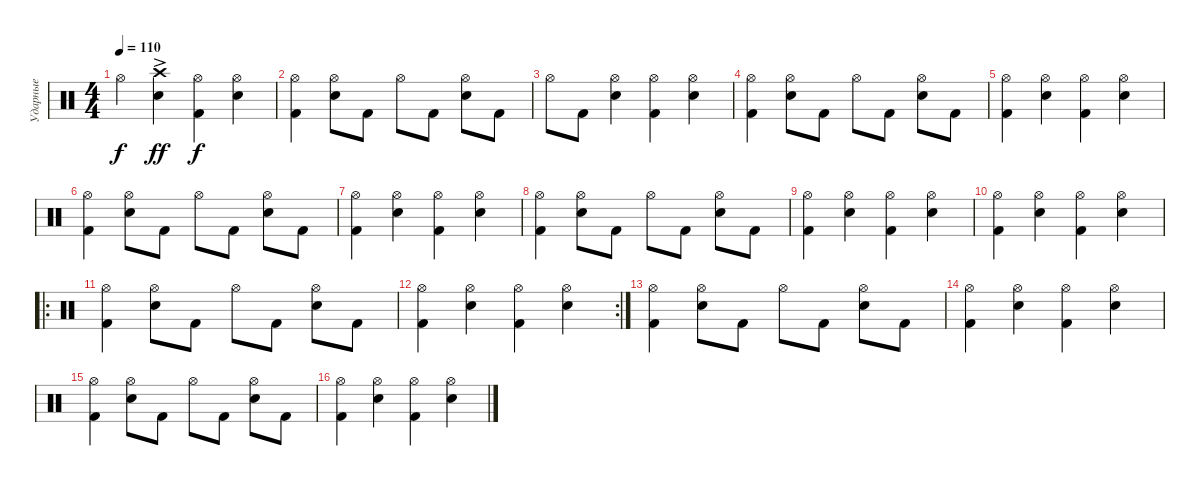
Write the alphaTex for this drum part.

\track ("Ударные" "Ударные") {instrument percussion}
\staff {score}
\articulation defaults
\ts (4 4)
\tempo 110
\clef neutral
\ks c "Hi-Hat (open)"{t}.4{dy f}
("Snare (hit) 2" "Crash high (hit)"{ac}).4{dy ff} ("Kick (hit) 2" "Hi-Hat (open)").4{dy f} ("Snare (hit) 2" "Hi-Hat (open)").4 |
("Kick (hit) 2" "Hi-Hat (open)").4 ("Snare (hit) 2" "Hi-Hat (open)").8 "Kick (hit) 2".8 "Hi-Hat (open)".8 "Kick (hit) 2".8 ("Snare (hit) 2" "Hi-Hat (open)").8 "Kick (hit) 2".8 |
"Hi-Hat (open)".8 "Kick (hit) 2".8 ("Snare (hit) 2" "Hi-Hat (open)").4 ("Kick (hit) 2" "Hi-Hat (open)").4 ("Snare (hit) 2" "Hi-Hat (open)").4 |
("Kick (hit) 2" "Hi-Hat (open)").4 ("Snare (hit) 2" "Hi-Hat (open)").8 "Kick (hit) 2".8 "Hi-Hat (open)".8 "Kick (hit) 2".8 ("Snare (hit) 2" "Hi-Hat (open)").8 "Kick (hit) 2".8 |
("Kick (hit) 2" "Hi-Hat (open)").4 ("Snare (hit) 2" "Hi-Hat (open)").4 ("Kick (hit) 2" "Hi-Hat (open)").4 ("Snare (hit) 2" "Hi-Hat (open)").4 |
("Kick (hit) 2" "Hi-Hat (open)").4 ("Snare (hit) 2" "Hi-Hat (open)").8 "Kick (hit) 2".8 "Hi-Hat (open)".8 "Kick (hit) 2".8 ("Snare (hit) 2" "Hi-Hat (open)").8 "Kick (hit) 2".8 |
("Kick (hit) 2" "Hi-Hat (open)").4 ("Snare (hit) 2" "Hi-Hat (open)").4 ("Kick (hit) 2" "Hi-Hat (open)").4 ("Snare (hit) 2" "Hi-Hat (open)").4 |
("Kick (hit) 2" "Hi-Hat (open)").4 ("Snare (hit) 2" "Hi-Hat (open)").8 "Kick (hit) 2".8 "Hi-Hat (open)".8 "Kick (hit) 2".8 ("Snare (hit) 2" "Hi-Hat (open)").8 "Kick (hit) 2".8 |
("Kick (hit) 2" "Hi-Hat (open)").4 ("Snare (hit) 2" "Hi-Hat (open)").4 ("Kick (hit) 2" "Hi-Hat (open)").4 ("Snare (hit) 2" "Hi-Hat (open)").4 |
("Kick (hit) 2" "Hi-Hat (open)").4 ("Snare (hit) 2" "Hi-Hat (open)").4 ("Kick (hit) 2" "Hi-Hat (open)").4 ("Snare (hit) 2" "Hi-Hat (open)").4 |
\ro
("Kick (hit) 2" "Hi-Hat (open)").4 ("Snare (hit) 2" "Hi-Hat (open)").8 "Kick (hit) 2".8 "Hi-Hat (open)".8 "Kick (hit) 2".8 ("Snare (hit) 2" "Hi-Hat (open)").8 "Kick (hit) 2".8 |
\rc 2
("Kick (hit) 2" "Hi-Hat (open)").4 ("Snare (hit) 2" "Hi-Hat (open)").4 ("Kick (hit) 2" "Hi-Hat (open)").4 ("Snare (hit) 2" "Hi-Hat (open)").4 |
("Kick (hit) 2" "Hi-Hat (open)").4 ("Snare (hit) 2" "Hi-Hat (open)").8 "Kick (hit) 2".8 "Hi-Hat (open)".8 "Kick (hit) 2".8 ("Snare (hit) 2" "Hi-Hat (open)").8 "Kick (hit) 2".8 |
("Kick (hit) 2" "Hi-Hat (open)").4 ("Snare (hit) 2" "Hi-Hat (open)").4 ("Kick (hit) 2" "Hi-Hat (open)").4 ("Snare (hit) 2" "Hi-Hat (open)").4 |
("Kick (hit) 2" "Hi-Hat (open)").4 ("Snare (hit) 2" "Hi-Hat (open)").8 "Kick (hit) 2".8 "Hi-Hat (open)".8 "Kick (hit) 2".8 ("Snare (hit) 2" "Hi-Hat (open)").8 "Kick (hit) 2".8 |
("Kick (hit) 2" "Hi-Hat (open)").4 ("Snare (hit) 2" "Hi-Hat (open)").4 ("Kick (hit) 2" "Hi-Hat (open)").4 ("Snare (hit) 2" "Hi-Hat (open)").4
